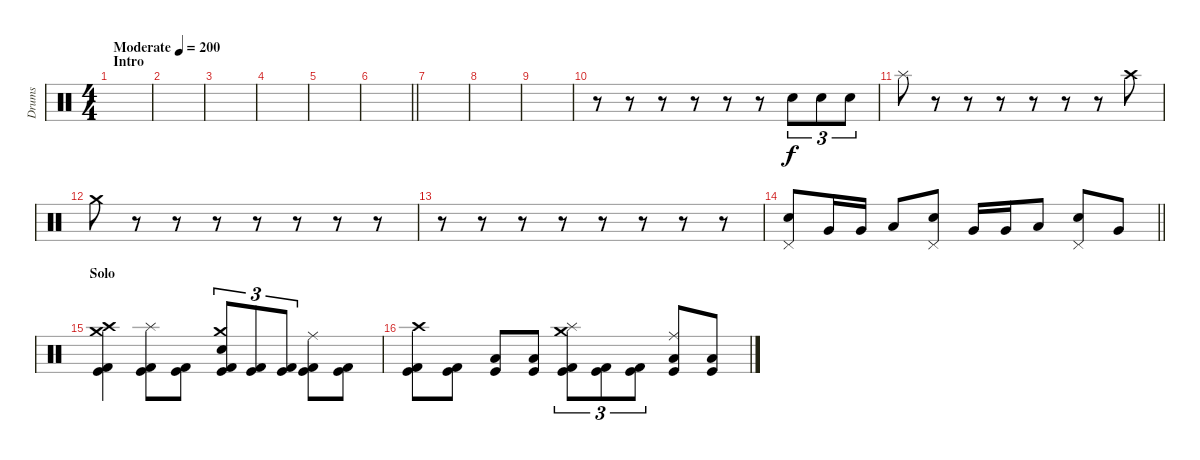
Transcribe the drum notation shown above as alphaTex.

\track ("Drums" "Drums") {instrument percussion}
\staff {score}
\articulation defaults
\ts (4 4)
\section ("" "Intro")
\tempo (200 "Moderate")
\clef neutral
\ks c
|
|
|
|
|
\barLineRight lightlight
|
|
|
|
r.8 r.8 r.8 r.8 r.8 r.8 "Snare (hit) 2".8{tu (3 2)} "Snare (hit) 2".8{tu (3 2)} "Snare (hit) 2".8{tu (3 2)} |
"Splash (hit)".8 r.8 r.8 r.8 r.8 r.8 r.8 "Crash high (hit)".8 |
"Crash medium (hit)".8 r.8 r.8 r.8 r.8 r.8 r.8 r.8 |
r.8 r.8 r.8 r.8 r.8 r.8 r.8 r.8 |
\barLineRight lightlight
("Pedal Hi-Hat (hit)" "Snare (hit) 2").8 "Very Low Tom (hit)".16 "Very Low Tom (hit)".16 "Low Floor Tom (hit)".8 ("Pedal Hi-Hat (hit)" "Snare (hit) 2").8 "Very Low Tom (hit)".16 "Very Low Tom (hit)".16 "Low Floor Tom (hit)".8 ("Pedal Hi-Hat (hit)" "Snare (hit) 2").8 "Very Low Tom (hit)".8 |
\section ("" "Solo")
("Crash high (hit)" "Crash medium (hit)" "Kick (hit)" "Kick (hit) 2").4 ("Splash (hit)" "Kick (hit)" "Kick (hit) 2").8 ("Kick (hit)" "Kick (hit) 2").8 ("Crash medium (hit)" "Snare (hit) 2" "Kick (hit)" "Kick (hit) 2").8{tu (3 2)} ("Kick (hit)" "Kick (hit) 2").8{tu (3 2)} ("Kick (hit)" "Kick (hit) 2").8{tu (3 2)} ("Ride (middle)" "Kick (hit)" "Kick (hit) 2").8 ("Kick (hit)" "Kick (hit) 2").8 |
("Crash high (hit)" "Kick (hit)" "Kick (hit) 2").8 ("Kick (hit)" "Kick (hit) 2").8 ("Kick (hit)" "Low Tom (hit)").8 ("Kick (hit)" "Low Tom (hit)").8 ("Crash medium (hit)" "Splash (hit)" "Kick (hit)" "Kick (hit) 2").8{tu (3 2)} ("Kick (hit)" "Kick (hit) 2").8{tu (3 2)} ("Kick (hit)" "Kick (hit) 2").8{tu (3 2)} ("Ride (middle)" "Kick (hit)" "Low Tom (hit)").8 ("Kick (hit)" "Low Tom (hit)").8
